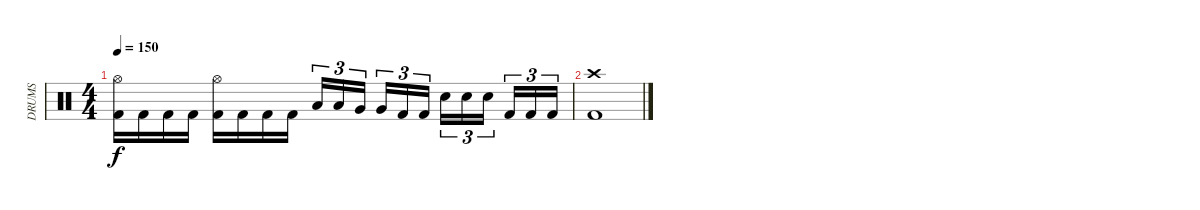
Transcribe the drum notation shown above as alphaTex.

\track ("DRUMS" "DRUMS") {instrument percussion}
\staff {score}
\articulation defaults
\ts (4 4)
\tempo 150
\clef neutral
\ks c
("Hi-Hat (open)" "Kick (hit) 2").16{dy f} "Kick (hit) 2".16 "Kick (hit) 2".16 "Kick (hit) 2".16 ("Hi-Hat (open)" "Kick (hit) 2").16 "Kick (hit) 2".16 "Kick (hit) 2".16 "Kick (hit) 2".16 "Low Tom (hit)".16{tu (3 2)} "Low Tom (hit)".16{tu (3 2)} "Very Low Tom (hit)".16{tu (3 2) beam splitsecondary} "Very Low Tom (hit)".16{tu (3 2)} "Kick (hit) 2".16{tu (3 2)} "Kick (hit) 2".16{tu (3 2)} "Electric Snare (hit)".16{tu (3 2)} "Electric Snare (hit)".16{tu (3 2)} "Electric Snare (hit)".16{tu (3 2) beam splitsecondary} "Kick (hit) 2".16{tu (3 2)} "Kick (hit) 2".16{tu (3 2)} "Kick (hit) 2".16{tu (3 2)} |
("Crash high (hit)" "Kick (hit) 2").1
